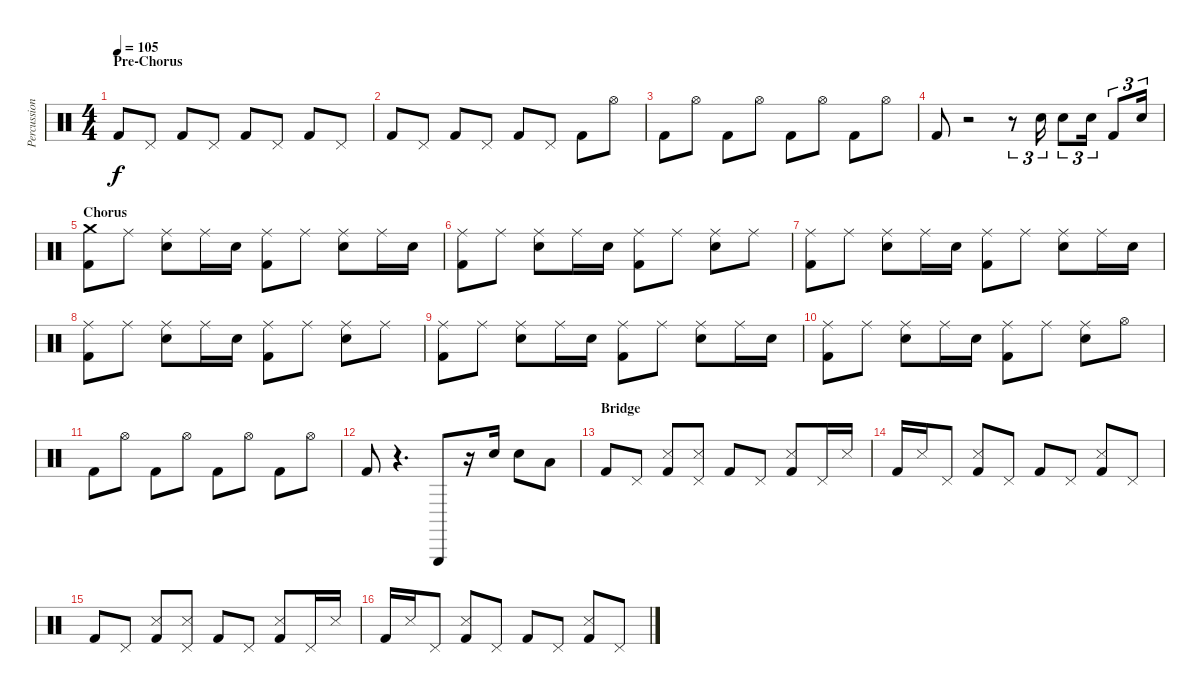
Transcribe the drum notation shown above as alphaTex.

\track ("Percussion" "Percussion") {instrument percussion}
\staff {score}
\articulation defaults
\ts (4 4)
\section ("" "Pre-Chorus")
\tempo 105
\clef neutral
\ks c "Kick (hit) 2".8{dy f} "Pedal Hi-Hat (hit)".8 "Kick (hit) 2".8 "Pedal Hi-Hat (hit)".8 "Kick (hit) 2".8 "Pedal Hi-Hat (hit)".8 "Kick (hit) 2".8 "Pedal Hi-Hat (hit)".8
|
"Kick (hit) 2".8 "Pedal Hi-Hat (hit)".8 "Kick (hit) 2".8 "Pedal Hi-Hat (hit)".8 "Kick (hit) 2".8 "Pedal Hi-Hat (hit)".8 "Kick (hit) 2".8 "Hi-Hat (open)".8 |
"Kick (hit) 2".8 "Hi-Hat (open)".8 "Kick (hit) 2".8 "Hi-Hat (open)".8 "Kick (hit) 2".8 "Hi-Hat (open)".8 "Kick (hit) 2".8 "Hi-Hat (open)".8 |
"Kick (hit) 2".8 r.2 r.8{tu (3 2)} "Electric Snare (hit)".16{tu (3 2)} "Electric Snare (hit)".8{tu (3 2)} "Electric Snare (hit)".16{tu (3 2)} "Kick (hit) 2".8{tu (3 2)} "Electric Snare (hit)".16{tu (3 2)} |
\section ("" "Chorus")
("Crash medium (hit)" "Kick (hit) 2").8 "Ride (middle)".8 ("Ride (middle)" "Electric Snare (hit)").8 "Ride (middle)".16 "Electric Snare (hit)".16 ("Ride (middle)" "Kick (hit) 2").8 "Ride (middle)".8 ("Ride (middle)" "Electric Snare (hit)").8 "Ride (middle)".16 "Electric Snare (hit)".16 |
("Ride (middle)" "Kick (hit) 2").8 "Ride (middle)".8 ("Ride (middle)" "Electric Snare (hit)").8 "Ride (middle)".16 "Electric Snare (hit)".16 ("Ride (middle)" "Kick (hit) 2").8 "Ride (middle)".8 ("Ride (middle)" "Electric Snare (hit)").8 "Ride (middle)".8 |
("Ride (middle)" "Kick (hit) 2").8 "Ride (middle)".8 ("Ride (middle)" "Electric Snare (hit)").8 "Ride (middle)".16 "Electric Snare (hit)".16 ("Ride (middle)" "Kick (hit) 2").8 "Ride (middle)".8 ("Ride (middle)" "Electric Snare (hit)").8 "Ride (middle)".16 "Electric Snare (hit)".16 |
("Ride (middle)" "Kick (hit) 2").8 "Ride (middle)".8 ("Ride (middle)" "Electric Snare (hit)").8 "Ride (middle)".16 "Electric Snare (hit)".16 ("Ride (middle)" "Kick (hit) 2").8 "Ride (middle)".8 ("Ride (middle)" "Electric Snare (hit)").8 "Ride (middle)".8 |
("Ride (middle)" "Kick (hit) 2").8 "Ride (middle)".8 ("Ride (middle)" "Electric Snare (hit)").8 "Ride (middle)".16 "Electric Snare (hit)".16 ("Ride (middle)" "Kick (hit) 2").8 "Ride (middle)".8 ("Ride (middle)" "Electric Snare (hit)").8 "Ride (middle)".16 "Electric Snare (hit)".16 |
("Ride (middle)" "Kick (hit) 2").8 "Ride (middle)".8 ("Ride (middle)" "Electric Snare (hit)").8 "Ride (middle)".16 "Electric Snare (hit)".16 ("Ride (middle)" "Kick (hit) 2").8 "Ride (middle)".8 ("Ride (middle)" "Electric Snare (hit)").8 "Hi-Hat (open)".8 |
"Kick (hit) 2".8 "Hi-Hat (open)".8 "Kick (hit) 2".8 "Hi-Hat (open)".8 "Kick (hit) 2".8 "Hi-Hat (open)".8 "Kick (hit) 2".8 "Hi-Hat (open)".8 |
"Kick (hit) 2".8 r.4{d} "Triangle (hit)".8 r.16 "Electric Snare (hit)".16 "Electric Snare (hit)".8 "Low Tom (hit)".8 |
\section ("" "Bridge")
"Kick (hit) 2".8 "Pedal Hi-Hat (hit)".8 ("Snare (side stick) 3" "Kick (hit) 2").8 ("Pedal Hi-Hat (hit)" "Snare (side stick) 3").8 "Kick (hit) 2".8 "Pedal Hi-Hat (hit)".8 ("Snare (side stick) 3" "Kick (hit) 2").8 "Pedal Hi-Hat (hit)".16 "Snare (side stick) 3".16 |
"Kick (hit) 2".16 "Snare (side stick) 3".16 "Pedal Hi-Hat (hit)".8 ("Snare (side stick) 3" "Kick (hit) 2").8 "Pedal Hi-Hat (hit)".8 "Kick (hit) 2".8 "Pedal Hi-Hat (hit)".8 ("Snare (side stick) 3" "Kick (hit) 2").8 "Pedal Hi-Hat (hit)".8 |
"Kick (hit) 2".8 "Pedal Hi-Hat (hit)".8 ("Snare (side stick) 3" "Kick (hit) 2").8 ("Pedal Hi-Hat (hit)" "Snare (side stick) 3").8 "Kick (hit) 2".8 "Pedal Hi-Hat (hit)".8 ("Snare (side stick) 3" "Kick (hit) 2").8 "Pedal Hi-Hat (hit)".16 "Snare (side stick) 3".16 |
"Kick (hit) 2".16 "Snare (side stick) 3".16 "Pedal Hi-Hat (hit)".8 ("Snare (side stick) 3" "Kick (hit) 2").8 "Pedal Hi-Hat (hit)".8 "Kick (hit) 2".8 "Pedal Hi-Hat (hit)".8 ("Snare (side stick) 3" "Kick (hit) 2").8 "Pedal Hi-Hat (hit)".8
